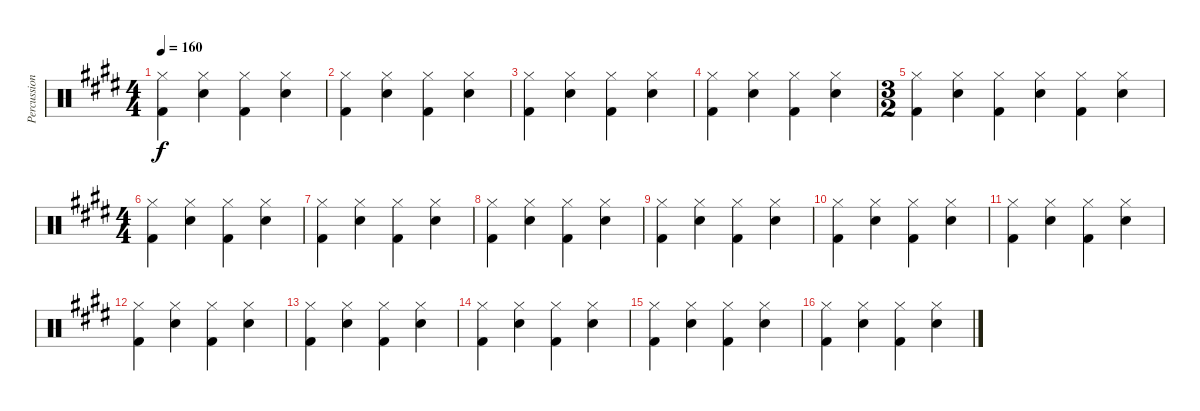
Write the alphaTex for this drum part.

\track ("Percussion" "Percussion") {instrument percussion}
\staff {score}
\articulation defaults
\ts (4 4)
\tempo 160
\clef neutral
\ks e
("Hi-Hat (closed)" "Kick (hit) 2").4{dy f} ("Hi-Hat (closed)" "Snare (hit) 2").4 ("Hi-Hat (closed)" "Kick (hit) 2").4 ("Hi-Hat (closed)" "Snare (hit) 2").4 |
("Hi-Hat (closed)" "Kick (hit) 2").4 ("Hi-Hat (closed)" "Snare (hit) 2").4 ("Hi-Hat (closed)" "Kick (hit) 2").4 ("Hi-Hat (closed)" "Snare (hit) 2").4 |
("Hi-Hat (closed)" "Kick (hit) 2").4 ("Hi-Hat (closed)" "Snare (hit) 2").4 ("Hi-Hat (closed)" "Kick (hit) 2").4 ("Hi-Hat (closed)" "Snare (hit) 2").4 |
("Hi-Hat (closed)" "Kick (hit) 2").4 ("Hi-Hat (closed)" "Snare (hit) 2").4 ("Hi-Hat (closed)" "Kick (hit) 2").4 ("Hi-Hat (closed)" "Snare (hit) 2").4 |
\ts (3 2)
("Hi-Hat (closed)" "Kick (hit) 2").4 ("Hi-Hat (closed)" "Snare (hit) 2").4 ("Hi-Hat (closed)" "Kick (hit) 2").4 ("Hi-Hat (closed)" "Snare (hit) 2").4 ("Hi-Hat (closed)" "Kick (hit) 2").4 ("Hi-Hat (closed)" "Snare (hit) 2").4 |
\ts (4 4)
("Hi-Hat (closed)" "Kick (hit) 2").4 ("Hi-Hat (closed)" "Snare (hit) 2").4 ("Hi-Hat (closed)" "Kick (hit) 2").4 ("Hi-Hat (closed)" "Snare (hit) 2").4 |
("Hi-Hat (closed)" "Kick (hit) 2").4 ("Hi-Hat (closed)" "Snare (hit) 2").4 ("Hi-Hat (closed)" "Kick (hit) 2").4 ("Hi-Hat (closed)" "Snare (hit) 2").4 |
("Hi-Hat (closed)" "Kick (hit) 2").4 ("Hi-Hat (closed)" "Snare (hit) 2").4 ("Hi-Hat (closed)" "Kick (hit) 2").4 ("Hi-Hat (closed)" "Snare (hit) 2").4 |
("Hi-Hat (closed)" "Kick (hit) 2").4 ("Hi-Hat (closed)" "Snare (hit) 2").4 ("Hi-Hat (closed)" "Kick (hit) 2").4 ("Hi-Hat (closed)" "Snare (hit) 2").4 |
("Hi-Hat (closed)" "Kick (hit) 2").4 ("Hi-Hat (closed)" "Snare (hit) 2").4 ("Hi-Hat (closed)" "Kick (hit) 2").4 ("Hi-Hat (closed)" "Snare (hit) 2").4 |
("Hi-Hat (closed)" "Kick (hit) 2").4 ("Hi-Hat (closed)" "Snare (hit) 2").4 ("Hi-Hat (closed)" "Kick (hit) 2").4 ("Hi-Hat (closed)" "Snare (hit) 2").4 |
("Hi-Hat (closed)" "Kick (hit) 2").4 ("Hi-Hat (closed)" "Snare (hit) 2").4 ("Hi-Hat (closed)" "Kick (hit) 2").4 ("Hi-Hat (closed)" "Snare (hit) 2").4 |
("Hi-Hat (closed)" "Kick (hit) 2").4 ("Hi-Hat (closed)" "Snare (hit) 2").4 ("Hi-Hat (closed)" "Kick (hit) 2").4 ("Hi-Hat (closed)" "Snare (hit) 2").4 |
("Hi-Hat (closed)" "Kick (hit) 2").4 ("Hi-Hat (closed)" "Snare (hit) 2").4 ("Hi-Hat (closed)" "Kick (hit) 2").4 ("Hi-Hat (closed)" "Snare (hit) 2").4 |
("Hi-Hat (closed)" "Kick (hit) 2").4 ("Hi-Hat (closed)" "Snare (hit) 2").4 ("Hi-Hat (closed)" "Kick (hit) 2").4 ("Hi-Hat (closed)" "Snare (hit) 2").4 |
("Hi-Hat (closed)" "Kick (hit) 2").4 ("Hi-Hat (closed)" "Snare (hit) 2").4 ("Hi-Hat (closed)" "Kick (hit) 2").4 ("Hi-Hat (closed)" "Snare (hit) 2").4
